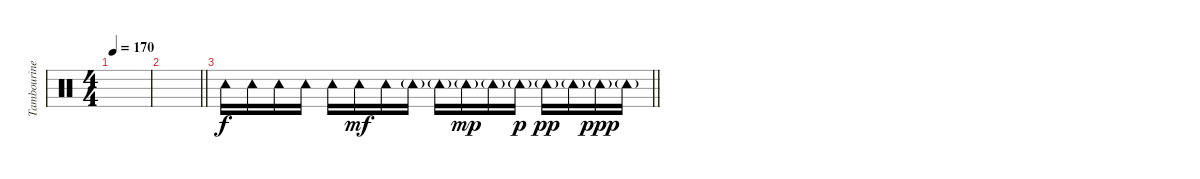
\track ("Tambourine" "Tambourine") {instrument percussion}
\staff {score}
\articulation defaults
\ts (4 4)
\tempo 170
\clef neutral
\ks c
|
\barLineRight lightlight
|
\barLineRight lightlight "Tambourine (hit)".16{dy f} "Tambourine (hit)".16 "Tambourine (hit)".16 "Tambourine (hit)".16 "Tambourine (hit)".16 "Tambourine (hit)".16{dy mf} "Tambourine (hit)".16 "Tambourine (hit)"{g}.16 "Tambourine (hit)"{g}.16 "Tambourine (hit)"{g}.16{dy mp} "Tambourine (hit)"{g}.16 "Tambourine (hit)"{g}.16{dy p} "Tambourine (hit)"{g}.16{dy pp} "Tambourine (hit)"{g}.16 "Tambourine (hit)"{g}.16{dy ppp} "Tambourine (hit)"{g}.16
